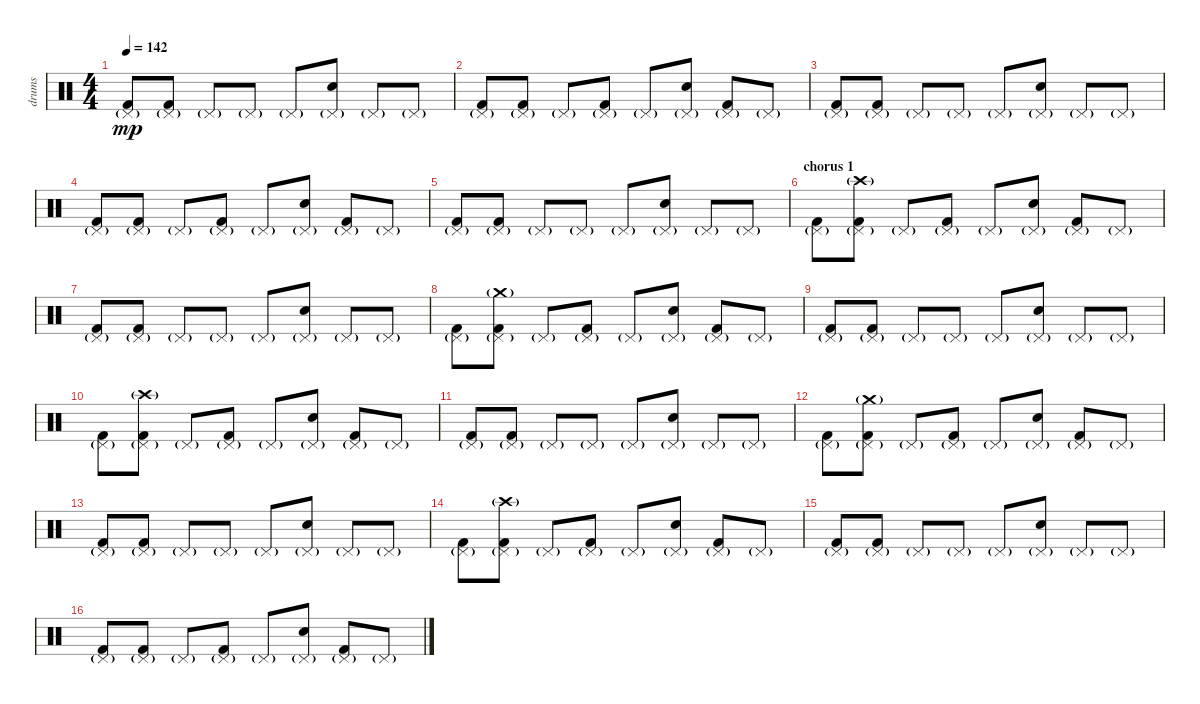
\track ("drums" "drums") {instrument percussion}
\staff {score}
\articulation defaults
\ts (4 4)
\tempo 142
\clef neutral
\ks c
("Kick (hit) 2" "Pedal Hi-Hat (hit)"{g}).8{dy mp} ("Kick (hit) 2" "Pedal Hi-Hat (hit)"{g}).8 "Pedal Hi-Hat (hit)"{g}.8 "Pedal Hi-Hat (hit)"{g}.8 "Pedal Hi-Hat (hit)"{g}.8 ("Snare (hit) 2" "Pedal Hi-Hat (hit)"{g}).8 "Pedal Hi-Hat (hit)"{g}.8 "Pedal Hi-Hat (hit)"{g}.8 |
("Kick (hit) 2" "Pedal Hi-Hat (hit)"{g}).8 ("Kick (hit) 2" "Pedal Hi-Hat (hit)"{g}).8 "Pedal Hi-Hat (hit)"{g}.8 ("Kick (hit) 2" "Pedal Hi-Hat (hit)"{g}).8 "Pedal Hi-Hat (hit)"{g}.8 ("Snare (hit) 2" "Pedal Hi-Hat (hit)"{g}).8 ("Kick (hit) 2" "Pedal Hi-Hat (hit)"{g}).8 "Pedal Hi-Hat (hit)"{g}.8 |
("Kick (hit) 2" "Pedal Hi-Hat (hit)"{g}).8 ("Kick (hit) 2" "Pedal Hi-Hat (hit)"{g}).8 "Pedal Hi-Hat (hit)"{g}.8 "Pedal Hi-Hat (hit)"{g}.8 "Pedal Hi-Hat (hit)"{g}.8 ("Snare (hit) 2" "Pedal Hi-Hat (hit)"{g}).8 "Pedal Hi-Hat (hit)"{g}.8 "Pedal Hi-Hat (hit)"{g}.8 |
("Kick (hit) 2" "Pedal Hi-Hat (hit)"{g}).8 ("Kick (hit) 2" "Pedal Hi-Hat (hit)"{g}).8 "Pedal Hi-Hat (hit)"{g}.8 ("Kick (hit) 2" "Pedal Hi-Hat (hit)"{g}).8 "Pedal Hi-Hat (hit)"{g}.8 ("Snare (hit) 2" "Pedal Hi-Hat (hit)"{g}).8 ("Kick (hit) 2" "Pedal Hi-Hat (hit)"{g}).8 "Pedal Hi-Hat (hit)"{g}.8 |
("Kick (hit) 2" "Pedal Hi-Hat (hit)"{g}).8 ("Kick (hit) 2" "Pedal Hi-Hat (hit)"{g}).8 "Pedal Hi-Hat (hit)"{g}.8 "Pedal Hi-Hat (hit)"{g}.8 "Pedal Hi-Hat (hit)"{g}.8 ("Snare (hit) 2" "Pedal Hi-Hat (hit)"{g}).8 "Pedal Hi-Hat (hit)"{g}.8 "Pedal Hi-Hat (hit)"{g}.8 |
\section ("" "chorus 1")
("Kick (hit) 2" "Pedal Hi-Hat (hit)"{g}).8 ("Kick (hit) 2" "Crash high (hit)"{g} "Pedal Hi-Hat (hit)"{g}).8 "Pedal Hi-Hat (hit)"{g}.8 ("Kick (hit) 2" "Pedal Hi-Hat (hit)"{g}).8 "Pedal Hi-Hat (hit)"{g}.8 ("Snare (hit) 2" "Pedal Hi-Hat (hit)"{g}).8 ("Kick (hit) 2" "Pedal Hi-Hat (hit)"{g}).8 "Pedal Hi-Hat (hit)"{g}.8 |
("Kick (hit) 2" "Pedal Hi-Hat (hit)"{g}).8 ("Kick (hit) 2" "Pedal Hi-Hat (hit)"{g}).8 "Pedal Hi-Hat (hit)"{g}.8 "Pedal Hi-Hat (hit)"{g}.8 "Pedal Hi-Hat (hit)"{g}.8 ("Snare (hit) 2" "Pedal Hi-Hat (hit)"{g}).8 "Pedal Hi-Hat (hit)"{g}.8 "Pedal Hi-Hat (hit)"{g}.8 |
("Kick (hit) 2" "Pedal Hi-Hat (hit)"{g}).8 ("Kick (hit) 2" "Crash medium (hit)"{g} "Pedal Hi-Hat (hit)"{g}).8 "Pedal Hi-Hat (hit)"{g}.8 ("Kick (hit) 2" "Pedal Hi-Hat (hit)"{g}).8 "Pedal Hi-Hat (hit)"{g}.8 ("Snare (hit) 2" "Pedal Hi-Hat (hit)"{g}).8 ("Kick (hit) 2" "Pedal Hi-Hat (hit)"{g}).8 "Pedal Hi-Hat (hit)"{g}.8 |
("Kick (hit) 2" "Pedal Hi-Hat (hit)"{g}).8 ("Kick (hit) 2" "Pedal Hi-Hat (hit)"{g}).8 "Pedal Hi-Hat (hit)"{g}.8 "Pedal Hi-Hat (hit)"{g}.8 "Pedal Hi-Hat (hit)"{g}.8 ("Snare (hit) 2" "Pedal Hi-Hat (hit)"{g}).8 "Pedal Hi-Hat (hit)"{g}.8 "Pedal Hi-Hat (hit)"{g}.8 |
("Kick (hit) 2" "Pedal Hi-Hat (hit)"{g}).8 ("Kick (hit) 2" "Crash high (hit)"{g} "Pedal Hi-Hat (hit)"{g}).8 "Pedal Hi-Hat (hit)"{g}.8 ("Kick (hit) 2" "Pedal Hi-Hat (hit)"{g}).8 "Pedal Hi-Hat (hit)"{g}.8 ("Snare (hit) 2" "Pedal Hi-Hat (hit)"{g}).8 ("Kick (hit) 2" "Pedal Hi-Hat (hit)"{g}).8 "Pedal Hi-Hat (hit)"{g}.8 |
("Kick (hit) 2" "Pedal Hi-Hat (hit)"{g}).8 ("Kick (hit) 2" "Pedal Hi-Hat (hit)"{g}).8 "Pedal Hi-Hat (hit)"{g}.8 "Pedal Hi-Hat (hit)"{g}.8 "Pedal Hi-Hat (hit)"{g}.8 ("Snare (hit) 2" "Pedal Hi-Hat (hit)"{g}).8 "Pedal Hi-Hat (hit)"{g}.8 "Pedal Hi-Hat (hit)"{g}.8 |
("Kick (hit) 2" "Pedal Hi-Hat (hit)"{g}).8 ("Kick (hit) 2" "Crash medium (hit)"{g} "Pedal Hi-Hat (hit)"{g}).8 "Pedal Hi-Hat (hit)"{g}.8 ("Kick (hit) 2" "Pedal Hi-Hat (hit)"{g}).8 "Pedal Hi-Hat (hit)"{g}.8 ("Snare (hit) 2" "Pedal Hi-Hat (hit)"{g}).8 ("Kick (hit) 2" "Pedal Hi-Hat (hit)"{g}).8 "Pedal Hi-Hat (hit)"{g}.8 |
("Kick (hit) 2" "Pedal Hi-Hat (hit)"{g}).8 ("Kick (hit) 2" "Pedal Hi-Hat (hit)"{g}).8 "Pedal Hi-Hat (hit)"{g}.8 "Pedal Hi-Hat (hit)"{g}.8 "Pedal Hi-Hat (hit)"{g}.8 ("Snare (hit) 2" "Pedal Hi-Hat (hit)"{g}).8 "Pedal Hi-Hat (hit)"{g}.8 "Pedal Hi-Hat (hit)"{g}.8 |
("Kick (hit) 2" "Pedal Hi-Hat (hit)"{g}).8 ("Kick (hit) 2" "Crash high (hit)"{g} "Pedal Hi-Hat (hit)"{g}).8 "Pedal Hi-Hat (hit)"{g}.8 ("Kick (hit) 2" "Pedal Hi-Hat (hit)"{g}).8 "Pedal Hi-Hat (hit)"{g}.8 ("Snare (hit) 2" "Pedal Hi-Hat (hit)"{g}).8 ("Kick (hit) 2" "Pedal Hi-Hat (hit)"{g}).8 "Pedal Hi-Hat (hit)"{g}.8 |
("Kick (hit) 2" "Pedal Hi-Hat (hit)"{g}).8 ("Kick (hit) 2" "Pedal Hi-Hat (hit)"{g}).8 "Pedal Hi-Hat (hit)"{g}.8 "Pedal Hi-Hat (hit)"{g}.8 "Pedal Hi-Hat (hit)"{g}.8 ("Snare (hit) 2" "Pedal Hi-Hat (hit)"{g}).8 "Pedal Hi-Hat (hit)"{g}.8 "Pedal Hi-Hat (hit)"{g}.8 |
("Kick (hit) 2" "Pedal Hi-Hat (hit)"{g}).8 ("Kick (hit) 2" "Pedal Hi-Hat (hit)"{g}).8 "Pedal Hi-Hat (hit)"{g}.8 ("Kick (hit) 2" "Pedal Hi-Hat (hit)"{g}).8 "Pedal Hi-Hat (hit)"{g}.8 ("Snare (hit) 2" "Pedal Hi-Hat (hit)"{g}).8 ("Kick (hit) 2" "Pedal Hi-Hat (hit)"{g}).8 "Pedal Hi-Hat (hit)"{g}.8
